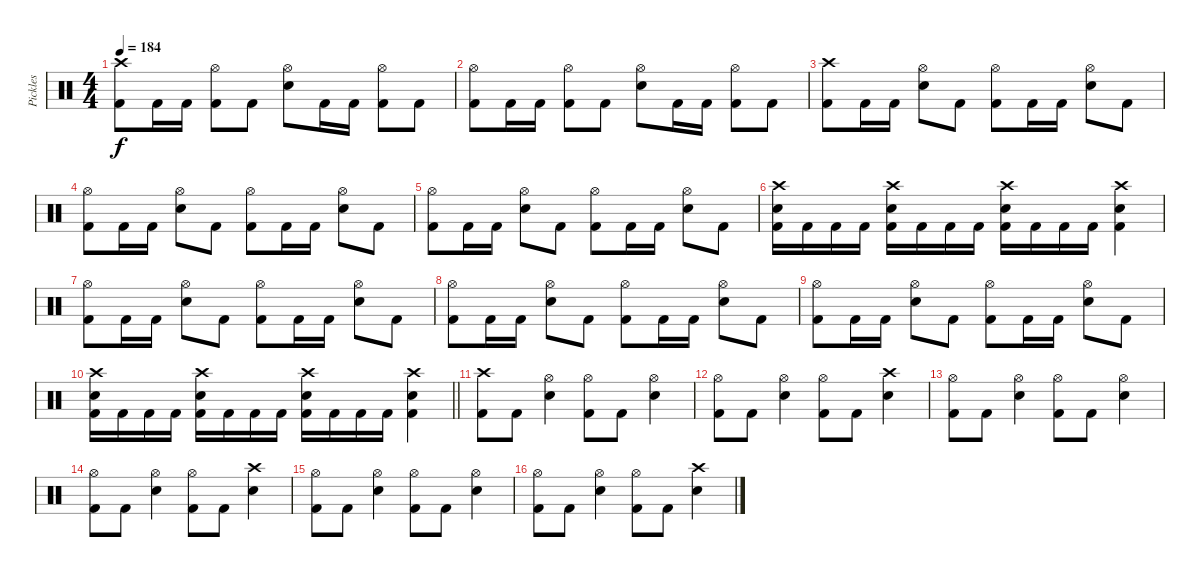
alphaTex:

\track ("Pickles" "Pickles") {instrument percussion}
\staff {score}
\articulation defaults
\ts (4 4)
\tempo 184
\clef neutral
\ks aminor
("Crash high (hit)" "Kick (hit) 2").8{dy f} "Kick (hit) 2".16 "Kick (hit) 2".16 ("Hi-Hat (open)" "Kick (hit) 2").8 "Kick (hit) 2".8 ("Hi-Hat (open)" "Snare (hit) 2").8 "Kick (hit) 2".16 "Kick (hit) 2".16 ("Hi-Hat (open)" "Kick (hit) 2").8 "Kick (hit) 2".8 |
("Hi-Hat (open)" "Kick (hit) 2").8 "Kick (hit) 2".16 "Kick (hit) 2".16 ("Hi-Hat (open)" "Kick (hit) 2").8 "Kick (hit) 2".8 ("Hi-Hat (open)" "Snare (hit) 2").8 "Kick (hit) 2".16 "Kick (hit) 2".16 ("Hi-Hat (open)" "Kick (hit) 2").8 "Kick (hit) 2".8 |
("Crash high (hit)" "Kick (hit) 2").8 "Kick (hit) 2".16 "Kick (hit) 2".16 ("Hi-Hat (open)" "Snare (hit) 2").8 "Kick (hit) 2".8 ("Hi-Hat (open)" "Kick (hit) 2").8 "Kick (hit) 2".16 "Kick (hit) 2".16 ("Hi-Hat (open)" "Snare (hit) 2").8 "Kick (hit) 2".8 |
("Hi-Hat (open)" "Kick (hit) 2").8 "Kick (hit) 2".16 "Kick (hit) 2".16 ("Hi-Hat (open)" "Snare (hit) 2").8 "Kick (hit) 2".8 ("Hi-Hat (open)" "Kick (hit) 2").8 "Kick (hit) 2".16 "Kick (hit) 2".16 ("Hi-Hat (open)" "Snare (hit) 2").8 "Kick (hit) 2".8 |
("Hi-Hat (open)" "Kick (hit) 2").8 "Kick (hit) 2".16 "Kick (hit) 2".16 ("Hi-Hat (open)" "Snare (hit) 2").8 "Kick (hit) 2".8 ("Hi-Hat (open)" "Kick (hit) 2").8 "Kick (hit) 2".16 "Kick (hit) 2".16 ("Hi-Hat (open)" "Snare (hit) 2").8 "Kick (hit) 2".8 |
("Crash high (hit)" "Snare (hit) 2" "Kick (hit) 2").16 "Kick (hit) 2".16 "Kick (hit) 2".16 "Kick (hit) 2".16 ("Crash high (hit)" "Snare (hit) 2" "Kick (hit) 2").16 "Kick (hit) 2".16 "Kick (hit) 2".16 "Kick (hit) 2".16 ("Crash high (hit)" "Snare (hit) 2" "Kick (hit) 2").16 "Kick (hit) 2".16 "Kick (hit) 2".16 "Kick (hit) 2".16 ("Crash high (hit)" "Snare (hit) 2" "Kick (hit) 2").4 |
("Hi-Hat (open)" "Kick (hit) 2").8 "Kick (hit) 2".16 "Kick (hit) 2".16 ("Hi-Hat (open)" "Snare (hit) 2").8 "Kick (hit) 2".8 ("Hi-Hat (open)" "Kick (hit) 2").8 "Kick (hit) 2".16 "Kick (hit) 2".16 ("Hi-Hat (open)" "Snare (hit) 2").8 "Kick (hit) 2".8 |
("Hi-Hat (open)" "Kick (hit) 2").8 "Kick (hit) 2".16 "Kick (hit) 2".16 ("Hi-Hat (open)" "Snare (hit) 2").8 "Kick (hit) 2".8 ("Hi-Hat (open)" "Kick (hit) 2").8 "Kick (hit) 2".16 "Kick (hit) 2".16 ("Hi-Hat (open)" "Snare (hit) 2").8 "Kick (hit) 2".8 |
("Hi-Hat (open)" "Kick (hit) 2").8 "Kick (hit) 2".16 "Kick (hit) 2".16 ("Hi-Hat (open)" "Snare (hit) 2").8 "Kick (hit) 2".8 ("Hi-Hat (open)" "Kick (hit) 2").8 "Kick (hit) 2".16 "Kick (hit) 2".16 ("Hi-Hat (open)" "Snare (hit) 2").8 "Kick (hit) 2".8 |
\barLineRight lightlight
("Crash high (hit)" "Snare (hit) 2" "Kick (hit) 2").16 "Kick (hit) 2".16 "Kick (hit) 2".16 "Kick (hit) 2".16 ("Crash high (hit)" "Snare (hit) 2" "Kick (hit) 2").16 "Kick (hit) 2".16 "Kick (hit) 2".16 "Kick (hit) 2".16 ("Crash high (hit)" "Snare (hit) 2" "Kick (hit) 2").16 "Kick (hit) 2".16 "Kick (hit) 2".16 "Kick (hit) 2".16 ("Crash high (hit)" "Snare (hit) 2" "Kick (hit) 2").4 |
("Crash high (hit)" "Kick (hit) 2").8 "Kick (hit) 2".8 ("Hi-Hat (open)" "Snare (hit) 2").4 ("Hi-Hat (open)" "Kick (hit) 2").8 "Kick (hit) 2".8 ("Hi-Hat (open)" "Snare (hit) 2").4 |
("Hi-Hat (open)" "Kick (hit) 2").8 "Kick (hit) 2".8 ("Hi-Hat (open)" "Snare (hit) 2").4 ("Hi-Hat (open)" "Kick (hit) 2").8 "Kick (hit) 2".8 ("Crash high (hit)" "Snare (hit) 2").4 |
("Hi-Hat (open)" "Kick (hit) 2").8 "Kick (hit) 2".8 ("Hi-Hat (open)" "Snare (hit) 2").4 ("Hi-Hat (open)" "Kick (hit) 2").8 "Kick (hit) 2".8 ("Hi-Hat (open)" "Snare (hit) 2").4 |
("Hi-Hat (open)" "Kick (hit) 2").8 "Kick (hit) 2".8 ("Hi-Hat (open)" "Snare (hit) 2").4 ("Hi-Hat (open)" "Kick (hit) 2").8 "Kick (hit) 2".8 ("Crash high (hit)" "Snare (hit) 2").4 |
("Hi-Hat (open)" "Kick (hit) 2").8 "Kick (hit) 2".8 ("Hi-Hat (open)" "Snare (hit) 2").4 ("Hi-Hat (open)" "Kick (hit) 2").8 "Kick (hit) 2".8 ("Hi-Hat (open)" "Snare (hit) 2").4 |
("Hi-Hat (open)" "Kick (hit) 2").8 "Kick (hit) 2".8 ("Hi-Hat (open)" "Snare (hit) 2").4 ("Hi-Hat (open)" "Kick (hit) 2").8 "Kick (hit) 2".8 ("Crash high (hit)" "Snare (hit) 2").4
